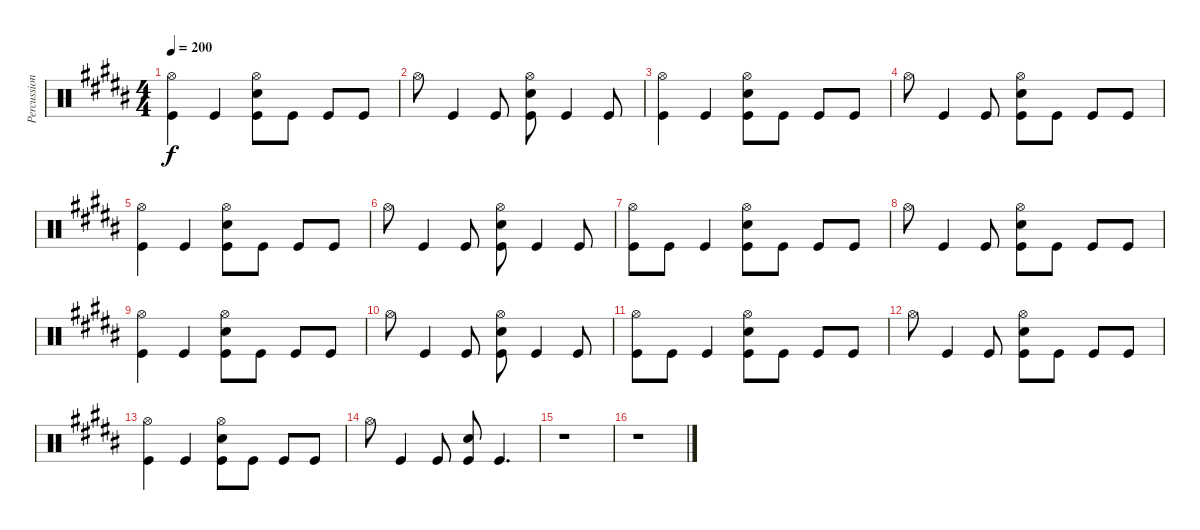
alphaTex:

\track ("Percussion" "Percussion") {instrument percussion}
\staff {score}
\articulation defaults
\ts (4 4)
\tempo 200
\clef neutral
\ks b
("Hi-Hat (open)" "Kick (hit)").4{dy f} "Kick (hit)".4 ("Hi-Hat (open)" "Electric Snare (hit)" "Kick (hit)").8 "Kick (hit)".8 "Kick (hit)".8 "Kick (hit)".8 |
"Hi-Hat (open)".8 "Kick (hit)".4 "Kick (hit)".8 ("Hi-Hat (open)" "Electric Snare (hit)" "Kick (hit)").8 "Kick (hit)".4 "Kick (hit)".8 |
("Hi-Hat (open)" "Kick (hit)").4 "Kick (hit)".4 ("Hi-Hat (open)" "Electric Snare (hit)" "Kick (hit)").8 "Kick (hit)".8 "Kick (hit)".8 "Kick (hit)".8 |
"Hi-Hat (open)".8 "Kick (hit)".4 "Kick (hit)".8 ("Hi-Hat (open)" "Electric Snare (hit)" "Kick (hit)").8 "Kick (hit)".8 "Kick (hit)".8 "Kick (hit)".8 |
("Hi-Hat (open)" "Kick (hit)").4 "Kick (hit)".4 ("Hi-Hat (open)" "Electric Snare (hit)" "Kick (hit)").8 "Kick (hit)".8 "Kick (hit)".8 "Kick (hit)".8 |
"Hi-Hat (open)".8 "Kick (hit)".4 "Kick (hit)".8 ("Hi-Hat (open)" "Electric Snare (hit)" "Kick (hit)").8 "Kick (hit)".4 "Kick (hit)".8 |
("Hi-Hat (open)" "Kick (hit)").8 "Kick (hit)".8 "Kick (hit)".4 ("Hi-Hat (open)" "Electric Snare (hit)" "Kick (hit)").8 "Kick (hit)".8 "Kick (hit)".8 "Kick (hit)".8 |
"Hi-Hat (open)".8 "Kick (hit)".4 "Kick (hit)".8 ("Hi-Hat (open)" "Electric Snare (hit)" "Kick (hit)").8 "Kick (hit)".8 "Kick (hit)".8 "Kick (hit)".8 |
("Hi-Hat (open)" "Kick (hit)").4 "Kick (hit)".4 ("Hi-Hat (open)" "Electric Snare (hit)" "Kick (hit)").8 "Kick (hit)".8 "Kick (hit)".8 "Kick (hit)".8 |
"Hi-Hat (open)".8 "Kick (hit)".4 "Kick (hit)".8 ("Hi-Hat (open)" "Electric Snare (hit)" "Kick (hit)").8 "Kick (hit)".4 "Kick (hit)".8 |
("Hi-Hat (open)" "Kick (hit)").8 "Kick (hit)".8 "Kick (hit)".4 ("Hi-Hat (open)" "Electric Snare (hit)" "Kick (hit)").8 "Kick (hit)".8 "Kick (hit)".8 "Kick (hit)".8 |
"Hi-Hat (open)".8 "Kick (hit)".4 "Kick (hit)".8 ("Hi-Hat (open)" "Electric Snare (hit)" "Kick (hit)").8 "Kick (hit)".8 "Kick (hit)".8 "Kick (hit)".8 |
("Hi-Hat (open)" "Kick (hit)").4 "Kick (hit)".4 ("Hi-Hat (open)" "Electric Snare (hit)" "Kick (hit)").8 "Kick (hit)".8 "Kick (hit)".8 "Kick (hit)".8 |
"Hi-Hat (open)".8 "Kick (hit)".4 "Kick (hit)".8 ("Electric Snare (hit)" "Kick (hit)").8 "Kick (hit)".4{d} |
r.1 |
r.1
